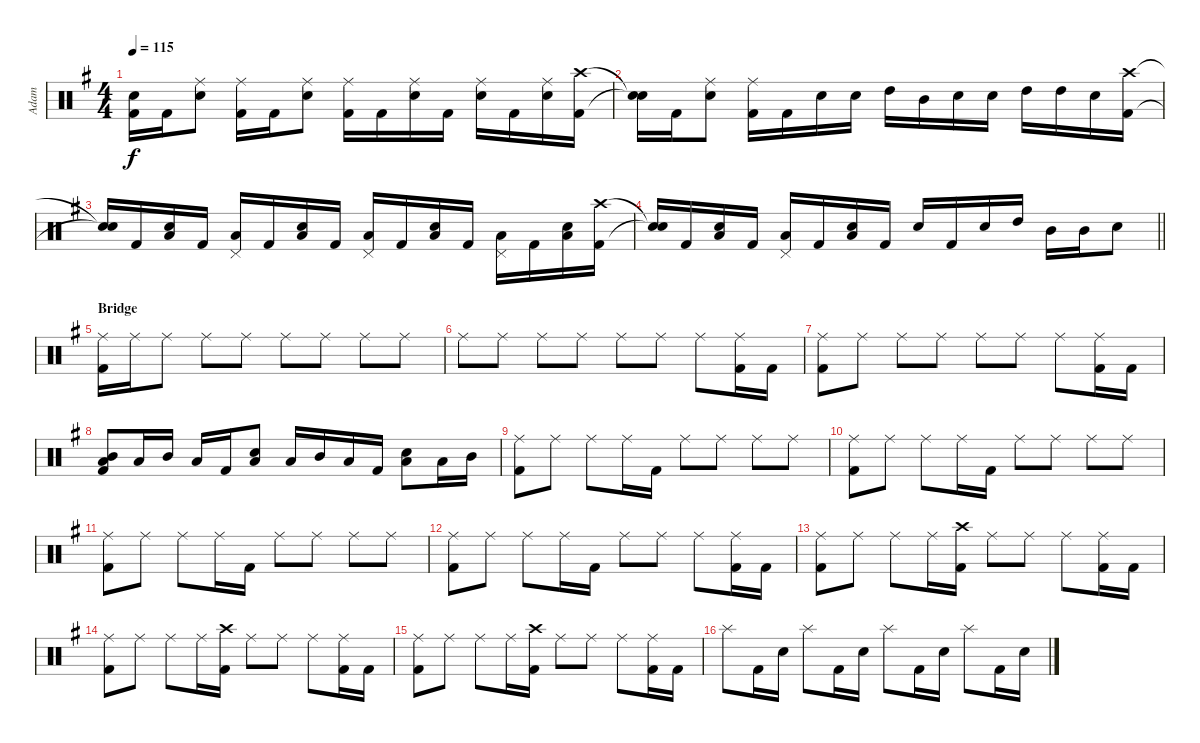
\track ("Adam" "Adam") {instrument percussion}
\staff {score}
\articulation defaults
\ts (4 4)
\tempo 115
\clef neutral
\ks g
("Snare (hit)"{t} "Kick (hit) 2"{t}).16{dy f} "Kick (hit) 2".16 ("Ride (middle)" "Snare (hit) 2").8 ("Ride (middle)" "Kick (hit) 2").16 "Kick (hit) 2".16 ("Ride (middle)" "Snare (hit) 2").8 ("Ride (middle)" "Kick (hit) 2").16 "Kick (hit) 2".16 ("Ride (middle)" "Snare (hit) 2").16 "Kick (hit) 2".16 ("Ride (middle)" "Snare (hit) 2").16 "Kick (hit) 2".16 ("Ride (middle)" "Snare (hit) 2").16 ("Crash high (hit)" "Kick (hit) 2").16 |
("Snare (hit)"{t} "Snare (hit)"{t}).16 "Kick (hit) 2".16 ("Ride (middle)" "Snare (hit) 2").8 ("Ride (middle)" "Kick (hit) 2").16 "Kick (hit) 2".16 "Snare (hit) 2".16 "Snare (hit) 2".16 "High Tom (hit)".16 "Mid Tom (hit)".16 "Snare (hit) 2".16 "Snare (hit) 2".16 "High Tom (hit)".16 "High Tom (hit)".16 "Snare (hit) 2".16 ("Crash high (hit)" "Kick (hit) 2").16 |
("Snare (hit)"{t} "Snare (hit)"{t}).16 "Kick (hit) 2".16 ("Snare (hit) 2" "Low Tom (hit)").16 "Kick (hit) 2".16 ("Low Tom (hit)" "Pedal Hi-Hat (hit)").16 "Kick (hit) 2".16 ("Snare (hit) 2" "Low Tom (hit)").16 "Kick (hit) 2".16 ("Low Tom (hit)" "Pedal Hi-Hat (hit)").16 "Kick (hit) 2".16 ("Snare (hit) 2" "Low Tom (hit)").16 "Kick (hit) 2".16 ("Low Tom (hit)" "Pedal Hi-Hat (hit)").16 "Kick (hit) 2".16 ("Snare (hit) 2" "Low Tom (hit)").16 ("Crash high (hit)" "Kick (hit) 2").16 |
\barLineRight lightlight
("Snare (hit)"{t} "Snare (hit)"{t}).16 "Kick (hit) 2".16 ("Snare (hit) 2" "Low Tom (hit)").16 "Kick (hit) 2".16 ("Low Tom (hit)" "Pedal Hi-Hat (hit)").16 "Kick (hit) 2".16 ("Snare (hit) 2" "Low Tom (hit)").16 "Kick (hit) 2".16 "Snare (hit) 2".16 "Kick (hit) 2".16 "Snare (hit) 2".16 "High Tom (hit)".16 "Mid Tom (hit)".16 "Mid Tom (hit)".16 "Snare (hit) 2".8 |
\section ("" "Bridge")
("Ride (middle)" "Kick (hit) 2").16 "Ride (middle)".16 "Ride (middle)".8 "Ride (middle)".8 "Ride (middle)".8 "Ride (middle)".8 "Ride (middle)".8 "Ride (middle)".8 "Ride (middle)".8 |
"Ride (middle)".8 "Ride (middle)".8 "Ride (middle)".8 "Ride (middle)".8 "Ride (middle)".8 "Ride (middle)".8 "Ride (middle)".8 ("Ride (middle)" "Kick (hit) 2").16 "Kick (hit) 2".16 |
("Ride (middle)" "Kick (hit) 2").8 "Ride (middle)".8 "Ride (middle)".8 "Ride (middle)".8 "Ride (middle)".8 "Ride (middle)".8 "Ride (middle)".8 ("Ride (middle)" "Kick (hit) 2").16 "Kick (hit) 2".16 |
("Mid Tom (hit)" "Low Tom (hit)" "Kick (hit) 2").8 "Low Tom (hit)".16 "Mid Tom (hit)".16 "Low Tom (hit)".16 "Kick (hit) 2".16 ("Snare (hit) 2" "Low Tom (hit)").8 "Low Tom (hit)".16 "Mid Tom (hit)".16 "Low Tom (hit)".16 "Kick (hit) 2".16 ("Snare (hit) 2" "Low Tom (hit)").8 "Low Tom (hit)".16 "Mid Tom (hit)".16 |
("Ride (middle)" "Kick (hit) 2").8 "Ride (middle)".8 "Ride (middle)".8 "Ride (middle)".16 "Kick (hit) 2".16 "Ride (middle)".8 "Ride (middle)".8 "Ride (middle)".8 "Ride (middle)".8 |
("Ride (middle)" "Kick (hit) 2").8 "Ride (middle)".8 "Ride (middle)".8 "Ride (middle)".16 "Kick (hit) 2".16 "Ride (middle)".8 "Ride (middle)".8 "Ride (middle)".8 "Ride (middle)".8 |
("Ride (middle)" "Kick (hit) 2").8 "Ride (middle)".8 "Ride (middle)".8 "Ride (middle)".16 "Kick (hit) 2".16 "Ride (middle)".8 "Ride (middle)".8 "Ride (middle)".8 "Ride (middle)".8 |
("Ride (middle)" "Kick (hit) 2").8 "Ride (middle)".8 "Ride (middle)".8 "Ride (middle)".16 "Kick (hit) 2".16 "Ride (middle)".8 "Ride (middle)".8 "Ride (middle)".8 ("Ride (middle)" "Kick (hit) 2").16 "Kick (hit) 2".16 |
("Ride (middle)" "Kick (hit) 2").8 "Ride (middle)".8 "Ride (middle)".8 "Ride (middle)".16 ("Crash high (hit)" "Kick (hit) 2").16 "Ride (middle)".8 "Ride (middle)".8 "Ride (middle)".8 ("Ride (middle)" "Kick (hit) 2").16 "Kick (hit) 2".16 |
("Ride (middle)" "Kick (hit) 2").8 "Ride (middle)".8 "Ride (middle)".8 "Ride (middle)".16 ("Crash high (hit)" "Kick (hit) 2").16 "Ride (middle)".8 "Ride (middle)".8 "Ride (middle)".8 ("Ride (middle)" "Kick (hit) 2").16 "Kick (hit) 2".16 |
("Ride (middle)" "Kick (hit) 2").8 "Ride (middle)".8 "Ride (middle)".8 "Ride (middle)".16 ("Crash high (hit)" "Kick (hit) 2").16 "Ride (middle)".8 "Ride (middle)".8 "Ride (middle)".8 ("Ride (middle)" "Kick (hit) 2").16 "Kick (hit) 2".16 |
"Splash (hit)".8 "Kick (hit) 2".16 "Snare (hit) 2".16 "Splash (hit)".8 "Kick (hit) 2".16 "Snare (hit) 2".16 "Splash (hit)".8 "Kick (hit) 2".16 "Snare (hit) 2".16 "Splash (hit)".8 "Kick (hit) 2".16 "Snare (hit) 2".16
